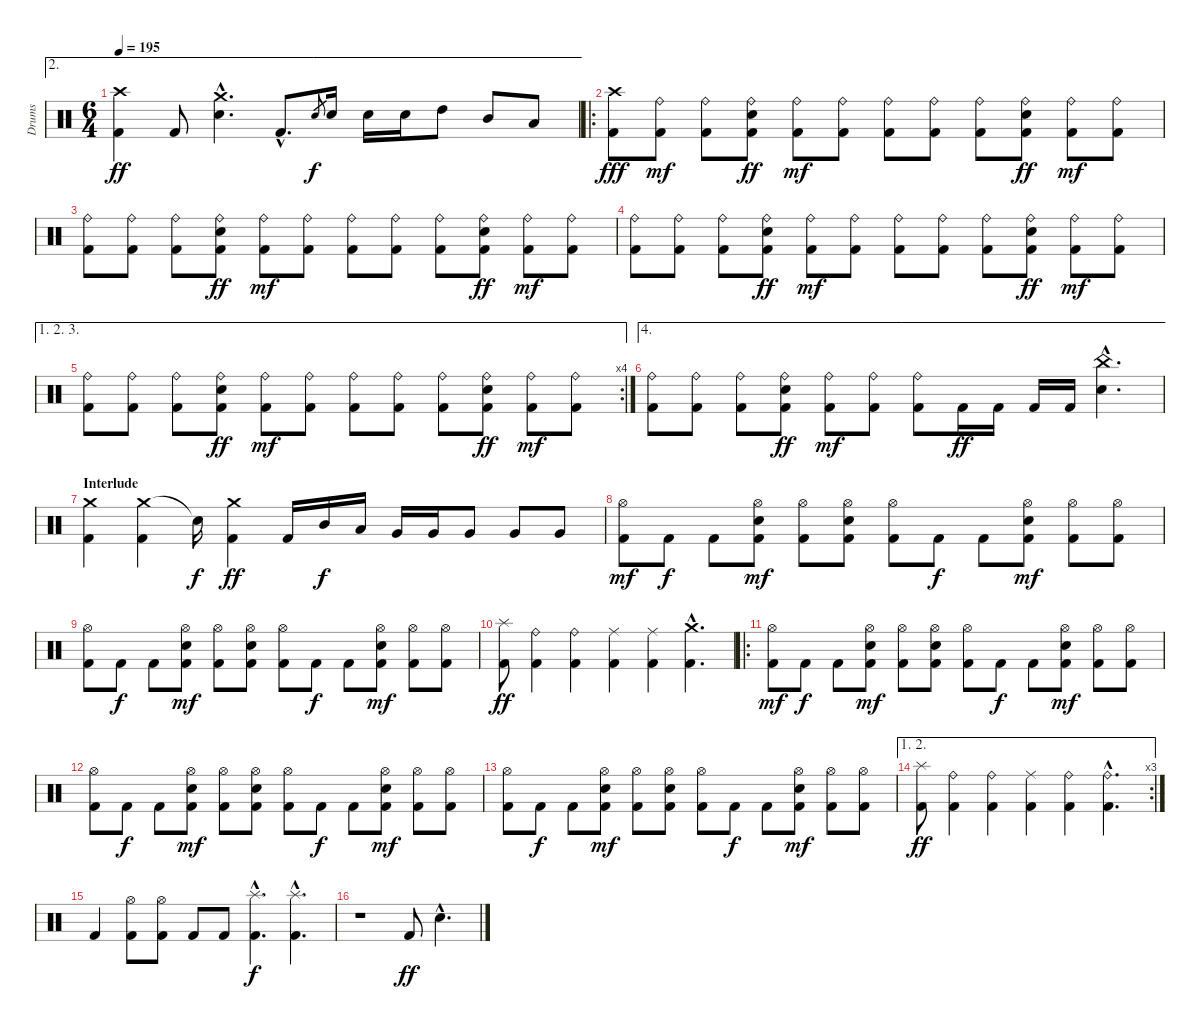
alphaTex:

\track ("Drums" "Drums") {instrument percussion}
\staff {score}
\articulation defaults
\ae 2
\ts (6 4)
\tempo 195
\clef neutral
\ks c
("Crash high (hit)" "Kick (hit) 2").4{dy ff} "Kick (hit) 2".8 ("Crash medium (hit)"{hac} "Electric Snare (hit)"{hac}).4{d} "Kick (hit) 2"{hac}.8{d} "Electric Snare (hit)".8{gr dy f} "Electric Snare (hit)".16 "Electric Snare (hit)".16 "Electric Snare (hit)".16 "High Tom (hit)".8 "Mid Tom (hit)".8 "Low Tom (hit)".8 |
\ro
("Crash high (hit)" "Kick (hit) 2").8{dy fff} ("Ride (bell)" "Kick (hit) 2").8{dy mf} ("Ride (bell)" "Kick (hit) 2").8 ("Ride (bell)" "Electric Snare (hit)" "Kick (hit) 2").8{dy ff} ("Ride (bell)" "Kick (hit) 2").8{dy mf} ("Ride (bell)" "Kick (hit) 2").8 ("Ride (bell)" "Kick (hit) 2").8 ("Ride (bell)" "Kick (hit) 2").8 ("Ride (bell)" "Kick (hit) 2").8 ("Ride (bell)" "Electric Snare (hit)" "Kick (hit) 2").8{dy ff} ("Ride (bell)" "Kick (hit) 2").8{dy mf} ("Ride (bell)" "Kick (hit) 2").8 |
("Ride (bell)" "Kick (hit) 2").8 ("Ride (bell)" "Kick (hit) 2").8 ("Ride (bell)" "Kick (hit) 2").8 ("Ride (bell)" "Electric Snare (hit)" "Kick (hit) 2").8{dy ff} ("Ride (bell)" "Kick (hit) 2").8{dy mf} ("Ride (bell)" "Kick (hit) 2").8 ("Ride (bell)" "Kick (hit) 2").8 ("Ride (bell)" "Kick (hit) 2").8 ("Ride (bell)" "Kick (hit) 2").8 ("Ride (bell)" "Electric Snare (hit)" "Kick (hit) 2").8{dy ff} ("Ride (bell)" "Kick (hit) 2").8{dy mf} ("Ride (bell)" "Kick (hit) 2").8 |
("Ride (bell)" "Kick (hit) 2").8 ("Ride (bell)" "Kick (hit) 2").8 ("Ride (bell)" "Kick (hit) 2").8 ("Ride (bell)" "Electric Snare (hit)" "Kick (hit) 2").8{dy ff} ("Ride (bell)" "Kick (hit) 2").8{dy mf} ("Ride (bell)" "Kick (hit) 2").8 ("Ride (bell)" "Kick (hit) 2").8 ("Ride (bell)" "Kick (hit) 2").8 ("Ride (bell)" "Kick (hit) 2").8 ("Ride (bell)" "Electric Snare (hit)" "Kick (hit) 2").8{dy ff} ("Ride (bell)" "Kick (hit) 2").8{dy mf} ("Ride (bell)" "Kick (hit) 2").8 |
\ae (1 2 3)
\rc 4
("Ride (bell)" "Kick (hit) 2").8 ("Ride (bell)" "Kick (hit) 2").8 ("Ride (bell)" "Kick (hit) 2").8 ("Ride (bell)" "Electric Snare (hit)" "Kick (hit) 2").8{dy ff} ("Ride (bell)" "Kick (hit) 2").8{dy mf} ("Ride (bell)" "Kick (hit) 2").8 ("Ride (bell)" "Kick (hit) 2").8 ("Ride (bell)" "Kick (hit) 2").8 ("Ride (bell)" "Kick (hit) 2").8 ("Ride (bell)" "Electric Snare (hit)" "Kick (hit) 2").8{dy ff} ("Ride (bell)" "Kick (hit) 2").8{dy mf} ("Ride (bell)" "Kick (hit) 2").8 |
\ae 4
("Ride (bell)" "Kick (hit) 2").8 ("Ride (bell)" "Kick (hit) 2").8 ("Ride (bell)" "Kick (hit) 2").8 ("Ride (bell)" "Electric Snare (hit)" "Kick (hit) 2").8{dy ff} ("Ride (bell)" "Kick (hit) 2").8{dy mf} ("Ride (bell)" "Kick (hit) 2").8 ("Ride (bell)" "Kick (hit) 2").8 "Kick (hit) 2".16{dy ff} "Kick (hit) 2".16 "Kick (hit) 2".16 "Kick (hit) 2".16 ("China (hit)"{hac} "Electric Snare (hit)"{hac}).4{d} |
\section ("" "Interlude")
("Crash medium (hit)" "Kick (hit) 2").4 ("Crash medium (hit)" "Kick (hit) 2").4 "Snare (hit)"{t}.16{dy f} ("Crash medium (hit)" "Kick (hit) 2").4{dy ff} "Kick (hit) 2".16 "Mid Tom (hit)".16{dy f} "Low Tom (hit)".16 "Very Low Tom (hit)".16 "Very Low Tom (hit)".16 "Very Low Tom (hit)".8 "Very Low Tom (hit)".8 "Very Low Tom (hit)".8 |
("Hi-Hat (open)" "Kick (hit) 2").8{dy mf} "Kick (hit) 2".8{dy f} "Kick (hit) 2".8 ("Hi-Hat (open)" "Electric Snare (hit)" "Kick (hit) 2").8{dy mf} ("Hi-Hat (open)" "Kick (hit) 2").8 ("Hi-Hat (open)" "Electric Snare (hit)" "Kick (hit) 2").8 ("Hi-Hat (open)" "Kick (hit) 2").8 "Kick (hit) 2".8{dy f} "Kick (hit) 2".8 ("Hi-Hat (open)" "Electric Snare (hit)" "Kick (hit) 2").8{dy mf} ("Hi-Hat (open)" "Kick (hit) 2").8 ("Hi-Hat (open)" "Kick (hit) 2").8 |
("Hi-Hat (open)" "Kick (hit) 2").8 "Kick (hit) 2".8{dy f} "Kick (hit) 2".8 ("Hi-Hat (open)" "Electric Snare (hit)" "Kick (hit) 2").8{dy mf} ("Hi-Hat (open)" "Kick (hit) 2").8 ("Hi-Hat (open)" "Electric Snare (hit)" "Kick (hit) 2").8 ("Hi-Hat (open)" "Kick (hit) 2").8 "Kick (hit) 2".8{dy f} "Kick (hit) 2".8 ("Hi-Hat (open)" "Electric Snare (hit)" "Kick (hit) 2").8{dy mf} ("Hi-Hat (open)" "Kick (hit) 2").8 ("Hi-Hat (open)" "Kick (hit) 2").8 |
("Splash (hit)" "Kick (hit) 2").8{dy ff} ("Ride (bell)" "Kick (hit) 2").4 ("Ride (bell)" "Kick (hit) 2").4 ("Ride (middle)" "Kick (hit) 2").4 ("Ride (middle)" "Kick (hit) 2").4 ("Crash medium (hit)"{hac} "Kick (hit) 2"{hac}).4{d} |
\ro
("Hi-Hat (open)" "Kick (hit) 2").8{dy mf} "Kick (hit) 2".8{dy f} "Kick (hit) 2".8 ("Hi-Hat (open)" "Electric Snare (hit)" "Kick (hit) 2").8{dy mf} ("Hi-Hat (open)" "Kick (hit) 2").8 ("Hi-Hat (open)" "Electric Snare (hit)" "Kick (hit) 2").8 ("Hi-Hat (open)" "Kick (hit) 2").8 "Kick (hit) 2".8{dy f} "Kick (hit) 2".8 ("Hi-Hat (open)" "Electric Snare (hit)" "Kick (hit) 2").8{dy mf} ("Hi-Hat (open)" "Kick (hit) 2").8 ("Hi-Hat (open)" "Kick (hit) 2").8 |
("Hi-Hat (open)" "Kick (hit) 2").8 "Kick (hit) 2".8{dy f} "Kick (hit) 2".8 ("Hi-Hat (open)" "Electric Snare (hit)" "Kick (hit) 2").8{dy mf} ("Hi-Hat (open)" "Kick (hit) 2").8 ("Hi-Hat (open)" "Electric Snare (hit)" "Kick (hit) 2").8 ("Hi-Hat (open)" "Kick (hit) 2").8 "Kick (hit) 2".8{dy f} "Kick (hit) 2".8 ("Hi-Hat (open)" "Electric Snare (hit)" "Kick (hit) 2").8{dy mf} ("Hi-Hat (open)" "Kick (hit) 2").8 ("Hi-Hat (open)" "Kick (hit) 2").8 |
("Hi-Hat (open)" "Kick (hit) 2").8 "Kick (hit) 2".8{dy f} "Kick (hit) 2".8 ("Hi-Hat (open)" "Electric Snare (hit)" "Kick (hit) 2").8{dy mf} ("Hi-Hat (open)" "Kick (hit) 2").8 ("Hi-Hat (open)" "Electric Snare (hit)" "Kick (hit) 2").8 ("Hi-Hat (open)" "Kick (hit) 2").8 "Kick (hit) 2".8{dy f} "Kick (hit) 2".8 ("Hi-Hat (open)" "Electric Snare (hit)" "Kick (hit) 2").8{dy mf} ("Hi-Hat (open)" "Kick (hit) 2").8 ("Hi-Hat (open)" "Kick (hit) 2").8 |
\ae (1 2)
\rc 3
("Splash (hit)" "Kick (hit) 2").8{dy ff} ("Ride (bell)" "Kick (hit) 2").4 ("Ride (bell)" "Kick (hit) 2").4 ("Ride (middle)" "Kick (hit) 2").4 ("Ride (bell)" "Kick (hit) 2").4 ("Ride (bell)"{hac} "Kick (hit) 2"{hac}).4{d} |
"Kick (hit) 2".4 ("Hi-Hat (open)" "Kick (hit) 2").8 ("Hi-Hat (open)" "Kick (hit) 2").8 "Kick (hit) 2".8 "Kick (hit) 2".8 ("Splash (hit)"{hac} "Kick (hit) 2"{hac}).4{d dy f} ("Splash (hit)"{hac} "Kick (hit) 2"{hac}).4{d} |
r.1 "Kick (hit) 2".8{dy ff} "Electric Snare (hit)"{hac}.4{d}
